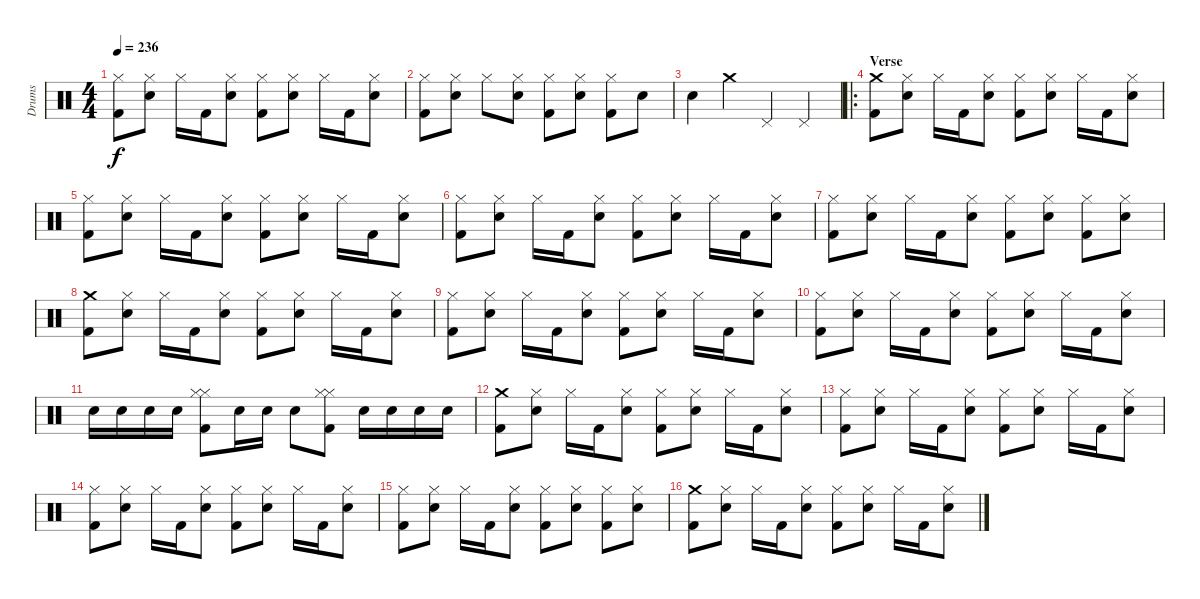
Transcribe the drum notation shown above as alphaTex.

\track ("Drums" "Drums") {instrument percussion}
\staff {score}
\articulation defaults
\ts (4 4)
\tempo 236
\clef neutral
\ks c
("Hi-Hat (closed)" "Kick (hit) 2").8{dy f} ("Hi-Hat (closed)" "Electric Snare (hit)").8 "Hi-Hat (closed)".16 "Kick (hit) 2".16 ("Hi-Hat (closed)" "Electric Snare (hit)").8 ("Hi-Hat (closed)" "Kick (hit) 2").8 ("Hi-Hat (closed)" "Electric Snare (hit)").8 "Hi-Hat (closed)".16 "Kick (hit) 2".16 ("Hi-Hat (closed)" "Electric Snare (hit)").8 |
("Hi-Hat (closed)" "Kick (hit) 2").8 ("Hi-Hat (closed)" "Electric Snare (hit)").8 "Hi-Hat (closed)".8 ("Hi-Hat (closed)" "Electric Snare (hit)").8 ("Hi-Hat (closed)" "Kick (hit) 2").8 ("Hi-Hat (closed)" "Electric Snare (hit)").8 ("Hi-Hat (closed)" "Kick (hit) 2").8 "Electric Snare (hit)".8 |
"Electric Snare (hit)".4 "Crash medium (hit)".4 "Pedal Hi-Hat (hit)".4 "Pedal Hi-Hat (hit)".4 |
\ro
\section ("" "Verse")
("Crash medium (hit)" "Kick (hit) 2").8 ("Hi-Hat (closed)" "Electric Snare (hit)").8 "Hi-Hat (closed)".16 "Kick (hit) 2".16 ("Hi-Hat (closed)" "Electric Snare (hit)").8 ("Hi-Hat (closed)" "Kick (hit) 2").8 ("Hi-Hat (closed)" "Electric Snare (hit)").8 "Hi-Hat (closed)".16 "Kick (hit) 2".16 ("Hi-Hat (closed)" "Electric Snare (hit)").8 |
("Hi-Hat (closed)" "Kick (hit) 2").8 ("Hi-Hat (closed)" "Electric Snare (hit)").8 "Hi-Hat (closed)".16 "Kick (hit) 2".16 ("Hi-Hat (closed)" "Electric Snare (hit)").8 ("Hi-Hat (closed)" "Kick (hit) 2").8 ("Hi-Hat (closed)" "Electric Snare (hit)").8 "Hi-Hat (closed)".16 "Kick (hit) 2".16 ("Hi-Hat (closed)" "Electric Snare (hit)").8 |
("Hi-Hat (closed)" "Kick (hit) 2").8 ("Hi-Hat (closed)" "Electric Snare (hit)").8 "Hi-Hat (closed)".16 "Kick (hit) 2".16 ("Hi-Hat (closed)" "Electric Snare (hit)").8 ("Hi-Hat (closed)" "Kick (hit) 2").8 ("Hi-Hat (closed)" "Electric Snare (hit)").8 "Hi-Hat (closed)".16 "Kick (hit) 2".16 ("Hi-Hat (closed)" "Electric Snare (hit)").8 |
("Hi-Hat (closed)" "Kick (hit) 2").8 ("Hi-Hat (closed)" "Electric Snare (hit)").8 "Hi-Hat (closed)".16 "Kick (hit) 2".16 ("Hi-Hat (closed)" "Electric Snare (hit)").8 ("Hi-Hat (closed)" "Kick (hit) 2").8 ("Hi-Hat (closed)" "Electric Snare (hit)").8 ("Hi-Hat (closed)" "Kick (hit) 2").8 ("Hi-Hat (closed)" "Electric Snare (hit)").8 |
("Crash medium (hit)" "Kick (hit) 2").8 ("Hi-Hat (closed)" "Electric Snare (hit)").8 "Hi-Hat (closed)".16 "Kick (hit) 2".16 ("Hi-Hat (closed)" "Electric Snare (hit)").8 ("Hi-Hat (closed)" "Kick (hit) 2").8 ("Hi-Hat (closed)" "Electric Snare (hit)").8 "Hi-Hat (closed)".16 "Kick (hit) 2".16 ("Hi-Hat (closed)" "Electric Snare (hit)").8 |
("Hi-Hat (closed)" "Kick (hit) 2").8 ("Hi-Hat (closed)" "Electric Snare (hit)").8 "Hi-Hat (closed)".16 "Kick (hit) 2".16 ("Hi-Hat (closed)" "Electric Snare (hit)").8 ("Hi-Hat (closed)" "Kick (hit) 2").8 ("Hi-Hat (closed)" "Electric Snare (hit)").8 "Hi-Hat (closed)".16 "Kick (hit) 2".16 ("Hi-Hat (closed)" "Electric Snare (hit)").8 |
("Hi-Hat (closed)" "Kick (hit) 2").8 ("Hi-Hat (closed)" "Electric Snare (hit)").8 "Hi-Hat (closed)".16 "Kick (hit) 2".16 ("Hi-Hat (closed)" "Electric Snare (hit)").8 ("Hi-Hat (closed)" "Kick (hit) 2").8 ("Hi-Hat (closed)" "Electric Snare (hit)").8 "Hi-Hat (closed)".16 "Kick (hit) 2".16 ("Hi-Hat (closed)" "Electric Snare (hit)").8 |
"Electric Snare (hit)".16 "Electric Snare (hit)".16 "Electric Snare (hit)".16 "Electric Snare (hit)".16 ("Hi-Hat (closed)" "Hi-Hat (closed)" "Kick (hit) 2").8 "Electric Snare (hit)".16 "Electric Snare (hit)".16 "Electric Snare (hit)".8 ("Hi-Hat (closed)" "Hi-Hat (closed)" "Kick (hit) 2").8 "Electric Snare (hit)".16 "Electric Snare (hit)".16 "Electric Snare (hit)".16 "Electric Snare (hit)".16 |
("Crash medium (hit)" "Kick (hit) 2").8 ("Hi-Hat (closed)" "Electric Snare (hit)").8 "Hi-Hat (closed)".16 "Kick (hit) 2".16 ("Hi-Hat (closed)" "Electric Snare (hit)").8 ("Hi-Hat (closed)" "Kick (hit) 2").8 ("Hi-Hat (closed)" "Electric Snare (hit)").8 "Hi-Hat (closed)".16 "Kick (hit) 2".16 ("Hi-Hat (closed)" "Electric Snare (hit)").8 |
("Hi-Hat (closed)" "Kick (hit) 2").8 ("Hi-Hat (closed)" "Electric Snare (hit)").8 "Hi-Hat (closed)".16 "Kick (hit) 2".16 ("Hi-Hat (closed)" "Electric Snare (hit)").8 ("Hi-Hat (closed)" "Kick (hit) 2").8 ("Hi-Hat (closed)" "Electric Snare (hit)").8 "Hi-Hat (closed)".16 "Kick (hit) 2".16 ("Hi-Hat (closed)" "Electric Snare (hit)").8 |
("Hi-Hat (closed)" "Kick (hit) 2").8 ("Hi-Hat (closed)" "Electric Snare (hit)").8 "Hi-Hat (closed)".16 "Kick (hit) 2".16 ("Hi-Hat (closed)" "Electric Snare (hit)").8 ("Hi-Hat (closed)" "Kick (hit) 2").8 ("Hi-Hat (closed)" "Electric Snare (hit)").8 "Hi-Hat (closed)".16 "Kick (hit) 2".16 ("Hi-Hat (closed)" "Electric Snare (hit)").8 |
("Hi-Hat (closed)" "Kick (hit) 2").8 ("Hi-Hat (closed)" "Electric Snare (hit)").8 "Hi-Hat (closed)".16 "Kick (hit) 2".16 ("Hi-Hat (closed)" "Electric Snare (hit)").8 ("Hi-Hat (closed)" "Kick (hit) 2").8 ("Hi-Hat (closed)" "Electric Snare (hit)").8 ("Hi-Hat (closed)" "Kick (hit) 2").8 ("Hi-Hat (closed)" "Electric Snare (hit)").8 |
("Crash medium (hit)" "Kick (hit) 2").8 ("Hi-Hat (closed)" "Electric Snare (hit)").8 "Hi-Hat (closed)".16 "Kick (hit) 2".16 ("Hi-Hat (closed)" "Electric Snare (hit)").8 ("Hi-Hat (closed)" "Kick (hit) 2").8 ("Hi-Hat (closed)" "Electric Snare (hit)").8 "Hi-Hat (closed)".16 "Kick (hit) 2".16 ("Hi-Hat (closed)" "Electric Snare (hit)").8
